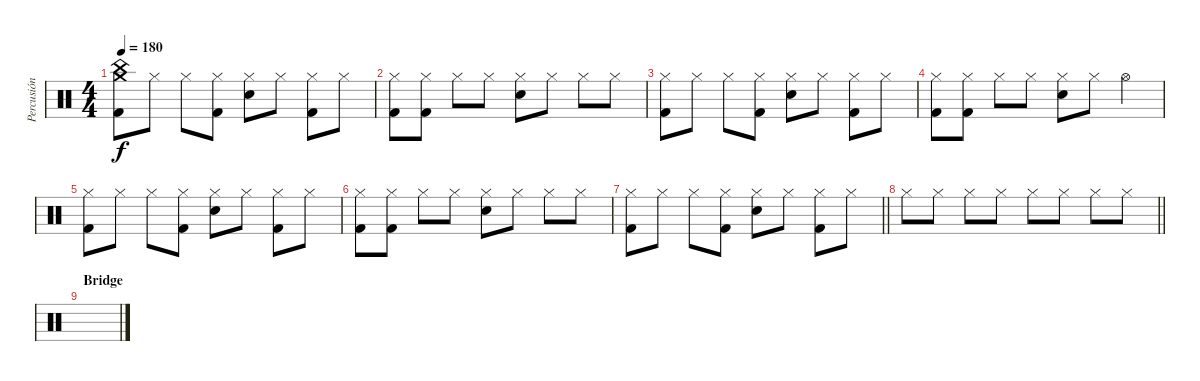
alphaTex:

\track ("Percusión" "Percusión") {instrument percussion}
\staff {score}
\articulation defaults
\ts (4 4)
\tempo 180
\clef neutral
\ks c
("Crash medium (hit)" "China (hit)" "Kick (hit) 2").8{dy f} "Hi-Hat (closed)".8 "Hi-Hat (closed)".8 ("Hi-Hat (closed)" "Kick (hit) 2").8 ("Hi-Hat (closed)" "Snare (hit) 2").8 "Hi-Hat (closed)".8 ("Hi-Hat (closed)" "Kick (hit) 2").8 "Hi-Hat (closed)".8 |
("Hi-Hat (closed)" "Kick (hit) 2").8 ("Hi-Hat (closed)" "Kick (hit) 2").8 "Hi-Hat (closed)".8 "Hi-Hat (closed)".8 ("Hi-Hat (closed)" "Snare (hit) 2").8 "Hi-Hat (closed)".8 "Hi-Hat (closed)".8 "Hi-Hat (closed)".8 |
("Hi-Hat (closed)" "Kick (hit) 2").8 "Hi-Hat (closed)".8 "Hi-Hat (closed)".8 ("Hi-Hat (closed)" "Kick (hit) 2").8 ("Hi-Hat (closed)" "Snare (hit) 2").8 "Hi-Hat (closed)".8 ("Hi-Hat (closed)" "Kick (hit) 2").8 "Hi-Hat (closed)".8 |
("Hi-Hat (closed)" "Kick (hit) 2").8 ("Hi-Hat (closed)" "Kick (hit) 2").8 "Hi-Hat (closed)".8 "Hi-Hat (closed)".8 ("Hi-Hat (closed)" "Snare (hit) 2").8 "Hi-Hat (closed)".8 "Hi-Hat (open)".4 |
("Hi-Hat (closed)" "Kick (hit) 2").8 "Hi-Hat (closed)".8 "Hi-Hat (closed)".8 ("Hi-Hat (closed)" "Kick (hit) 2").8 ("Hi-Hat (closed)" "Snare (hit) 2").8 "Hi-Hat (closed)".8 ("Hi-Hat (closed)" "Kick (hit) 2").8 "Hi-Hat (closed)".8 |
("Hi-Hat (closed)" "Kick (hit) 2").8 ("Hi-Hat (closed)" "Kick (hit) 2").8 "Hi-Hat (closed)".8 "Hi-Hat (closed)".8 ("Hi-Hat (closed)" "Snare (hit) 2").8 "Hi-Hat (closed)".8 "Hi-Hat (closed)".8 "Hi-Hat (closed)".8 |
\barLineRight lightlight
("Hi-Hat (closed)" "Kick (hit) 2").8 "Hi-Hat (closed)".8 "Hi-Hat (closed)".8 ("Hi-Hat (closed)" "Kick (hit) 2").8 ("Hi-Hat (closed)" "Snare (hit) 2").8 "Hi-Hat (closed)".8 ("Hi-Hat (closed)" "Kick (hit) 2").8 "Hi-Hat (closed)".8 |
\barLineRight lightlight "Hi-Hat (closed)".8 "Hi-Hat (closed)".8 "Hi-Hat (closed)".8 "Hi-Hat (closed)".8 "Hi-Hat (closed)".8 "Hi-Hat (closed)".8 "Hi-Hat (closed)".8 "Hi-Hat (closed)".8
|
\section ("" "Bridge")
